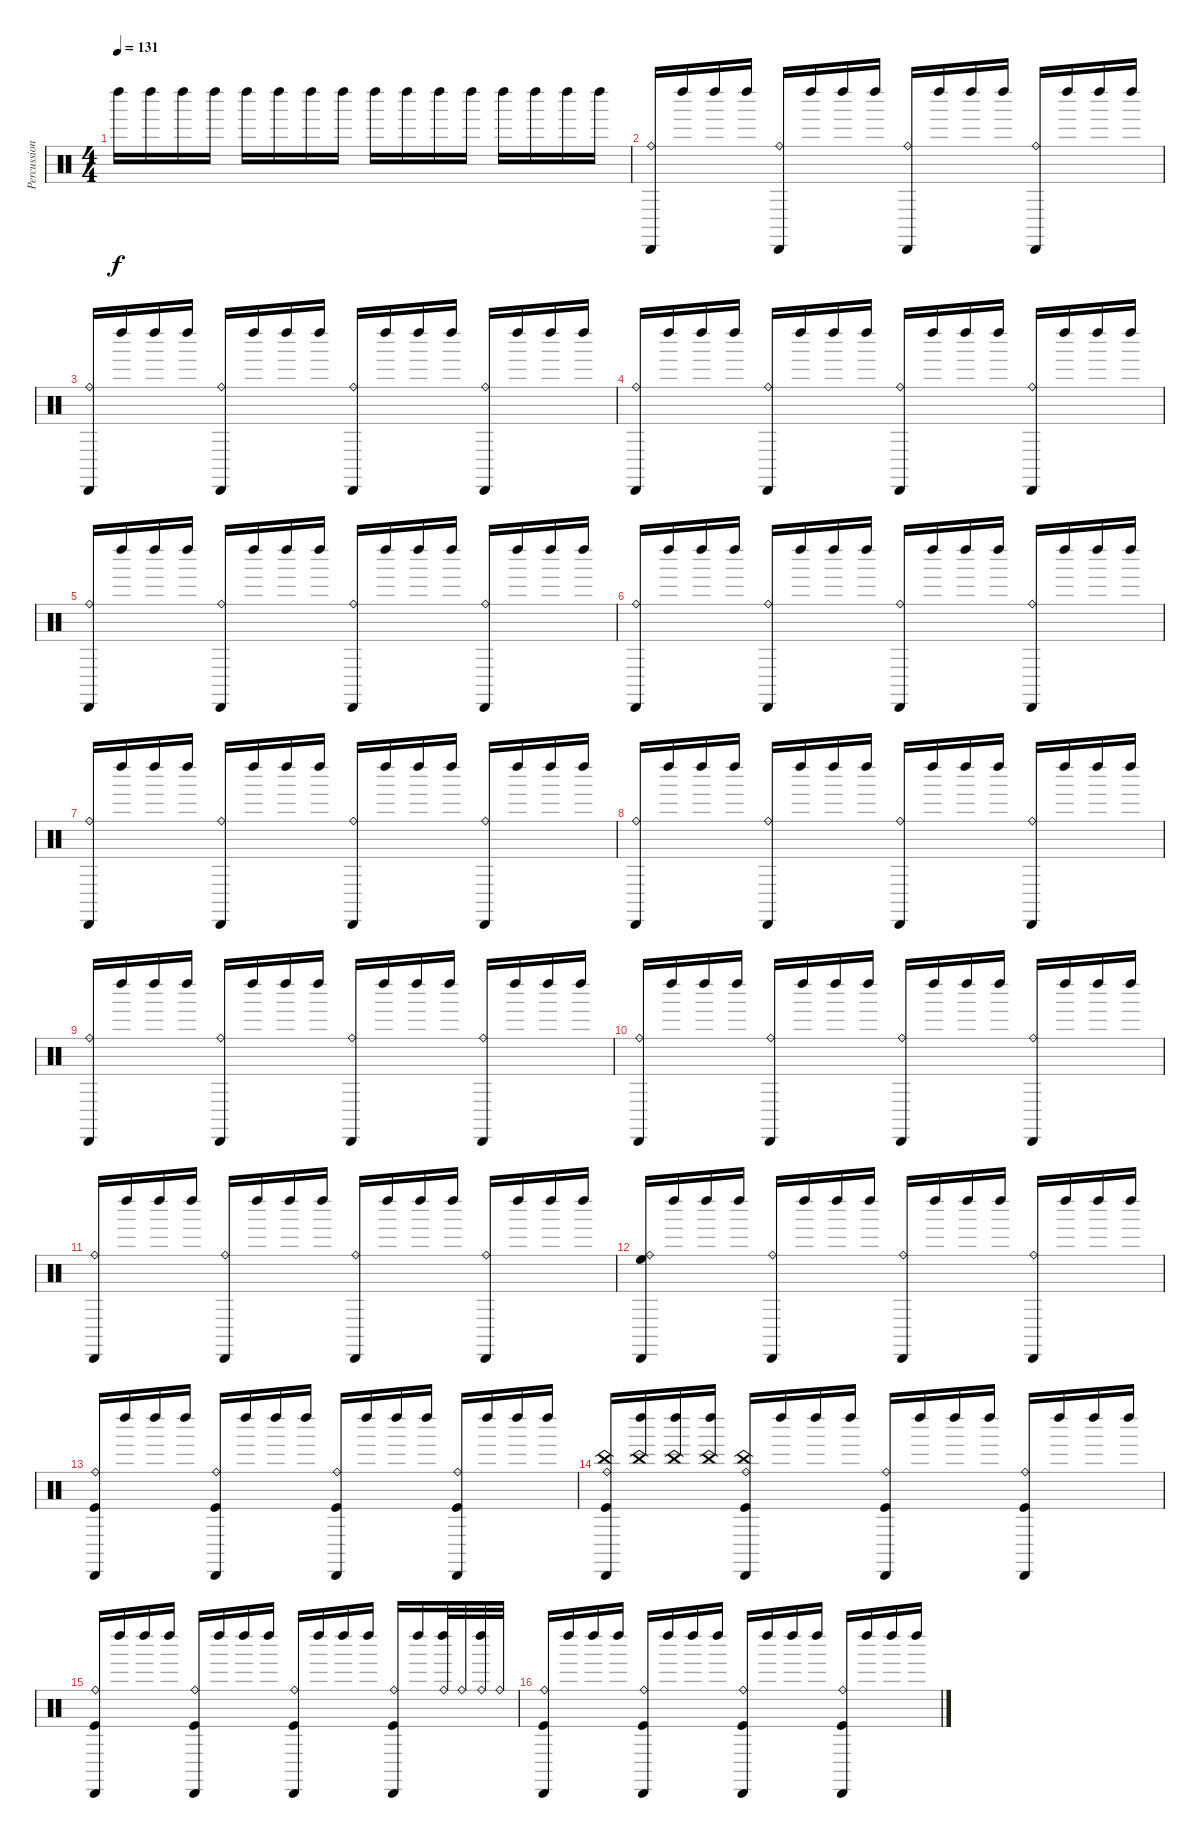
\track ("Percussion" "Percussion") {instrument percussion}
\staff {score}
\articulation defaults
\ts (4 4)
\tempo 131
\clef neutral
\ks c "Left Maraca (hit)".16{dy f} "Left Maraca (hit)".16 "Left Maraca (hit)".16 "Left Maraca (hit)".16 "Left Maraca (hit)".16 "Left Maraca (hit)".16 "Left Maraca (hit)".16 "Left Maraca (hit)".16 "Left Maraca (hit)".16 "Left Maraca (hit)".16 "Left Maraca (hit)".16 "Left Maraca (hit)".16 "Left Maraca (hit)".16 "Left Maraca (hit)".16 "Left Maraca (hit)".16 "Left Maraca (hit)".16
|
("Cabasa (hit)" "Ride (bell)").16 "Left Maraca (hit)".16 "Left Maraca (hit)".16 "Left Maraca (hit)".16 ("Cabasa (hit)" "Ride (bell)").16 "Left Maraca (hit)".16 "Left Maraca (hit)".16 "Left Maraca (hit)".16 ("Cabasa (hit)" "Ride (bell)").16 "Left Maraca (hit)".16 "Left Maraca (hit)".16 "Left Maraca (hit)".16 ("Cabasa (hit)" "Ride (bell)").16 "Left Maraca (hit)".16 "Left Maraca (hit)".16 "Left Maraca (hit)".16 |
("Cabasa (hit)" "Ride (bell)").16 "Left Maraca (hit)".16 "Left Maraca (hit)".16 "Left Maraca (hit)".16 ("Cabasa (hit)" "Ride (bell)").16 "Left Maraca (hit)".16 "Left Maraca (hit)".16 "Left Maraca (hit)".16 ("Cabasa (hit)" "Ride (bell)").16 "Left Maraca (hit)".16 "Left Maraca (hit)".16 "Left Maraca (hit)".16 ("Cabasa (hit)" "Ride (bell)").16 "Left Maraca (hit)".16 "Left Maraca (hit)".16 "Left Maraca (hit)".16 |
("Cabasa (hit)" "Ride (bell)").16 "Left Maraca (hit)".16 "Left Maraca (hit)".16 "Left Maraca (hit)".16 ("Cabasa (hit)" "Ride (bell)").16 "Left Maraca (hit)".16 "Left Maraca (hit)".16 "Left Maraca (hit)".16 ("Cabasa (hit)" "Ride (bell)").16 "Left Maraca (hit)".16 "Left Maraca (hit)".16 "Left Maraca (hit)".16 ("Cabasa (hit)" "Ride (bell)").16 "Left Maraca (hit)".16 "Left Maraca (hit)".16 "Left Maraca (hit)".16 |
("Cabasa (hit)" "Ride (bell)").16 "Left Maraca (hit)".16 "Left Maraca (hit)".16 "Left Maraca (hit)".16 ("Cabasa (hit)" "Ride (bell)").16 "Left Maraca (hit)".16 "Left Maraca (hit)".16 "Left Maraca (hit)".16 ("Cabasa (hit)" "Ride (bell)").16 "Left Maraca (hit)".16 "Left Maraca (hit)".16 "Left Maraca (hit)".16 ("Cabasa (hit)" "Ride (bell)").16 "Left Maraca (hit)".16 "Left Maraca (hit)".16 "Left Maraca (hit)".16 |
("Cabasa (hit)" "Ride (bell)").16 "Left Maraca (hit)".16 "Left Maraca (hit)".16 "Left Maraca (hit)".16 ("Cabasa (hit)" "Ride (bell)").16 "Left Maraca (hit)".16 "Left Maraca (hit)".16 "Left Maraca (hit)".16 ("Cabasa (hit)" "Ride (bell)").16 "Left Maraca (hit)".16 "Left Maraca (hit)".16 "Left Maraca (hit)".16 ("Cabasa (hit)" "Ride (bell)").16 "Left Maraca (hit)".16 "Left Maraca (hit)".16 "Left Maraca (hit)".16 |
("Cabasa (hit)" "Ride (bell)").16 "Left Maraca (hit)".16 "Left Maraca (hit)".16 "Left Maraca (hit)".16 ("Cabasa (hit)" "Ride (bell)").16 "Left Maraca (hit)".16 "Left Maraca (hit)".16 "Left Maraca (hit)".16 ("Cabasa (hit)" "Ride (bell)").16 "Left Maraca (hit)".16 "Left Maraca (hit)".16 "Left Maraca (hit)".16 ("Cabasa (hit)" "Ride (bell)").16 "Left Maraca (hit)".16 "Left Maraca (hit)".16 "Left Maraca (hit)".16 |
("Cabasa (hit)" "Ride (bell)").16 "Left Maraca (hit)".16 "Left Maraca (hit)".16 "Left Maraca (hit)".16 ("Cabasa (hit)" "Ride (bell)").16 "Left Maraca (hit)".16 "Left Maraca (hit)".16 "Left Maraca (hit)".16 ("Cabasa (hit)" "Ride (bell)").16 "Left Maraca (hit)".16 "Left Maraca (hit)".16 "Left Maraca (hit)".16 ("Cabasa (hit)" "Ride (bell)").16 "Left Maraca (hit)".16 "Left Maraca (hit)".16 "Left Maraca (hit)".16 |
("Cabasa (hit)" "Ride (bell)").16 "Left Maraca (hit)".16 "Left Maraca (hit)".16 "Left Maraca (hit)".16 ("Cabasa (hit)" "Ride (bell)").16 "Left Maraca (hit)".16 "Left Maraca (hit)".16 "Left Maraca (hit)".16 ("Cabasa (hit)" "Ride (bell)").16 "Left Maraca (hit)".16 "Left Maraca (hit)".16 "Left Maraca (hit)".16 ("Cabasa (hit)" "Ride (bell)").16 "Left Maraca (hit)".16 "Left Maraca (hit)".16 "Left Maraca (hit)".16 |
("Cabasa (hit)" "Ride (bell)").16 "Left Maraca (hit)".16 "Left Maraca (hit)".16 "Left Maraca (hit)".16 ("Cabasa (hit)" "Ride (bell)").16 "Left Maraca (hit)".16 "Left Maraca (hit)".16 "Left Maraca (hit)".16 ("Cabasa (hit)" "Ride (bell)").16 "Left Maraca (hit)".16 "Left Maraca (hit)".16 "Left Maraca (hit)".16 ("Cabasa (hit)" "Ride (bell)").16 "Left Maraca (hit)".16 "Left Maraca (hit)".16 "Left Maraca (hit)".16 |
("Cabasa (hit)" "Ride (bell)").16 "Left Maraca (hit)".16 "Left Maraca (hit)".16 "Left Maraca (hit)".16 ("Cabasa (hit)" "Ride (bell)").16 "Left Maraca (hit)".16 "Left Maraca (hit)".16 "Left Maraca (hit)".16 ("Cabasa (hit)" "Ride (bell)").16 "Left Maraca (hit)".16 "Left Maraca (hit)".16 "Left Maraca (hit)".16 ("Cabasa (hit)" "Ride (bell)").16 "Left Maraca (hit)".16 "Left Maraca (hit)".16 "Left Maraca (hit)".16 |
("Cabasa (hit)" "Ride (bell)" "High Floor Tom (hit)").16 "Left Maraca (hit)".16 "Left Maraca (hit)".16 "Left Maraca (hit)".16 ("Cabasa (hit)" "Ride (bell)").16 "Left Maraca (hit)".16 "Left Maraca (hit)".16 "Left Maraca (hit)".16 ("Cabasa (hit)" "Ride (bell)").16 "Left Maraca (hit)".16 "Left Maraca (hit)".16 "Left Maraca (hit)".16 ("Cabasa (hit)" "Ride (bell)").16 "Left Maraca (hit)".16 "Left Maraca (hit)".16 "Left Maraca (hit)".16 |
("Cabasa (hit)" "Ride (bell)" "Kick (hit)").16 "Left Maraca (hit)".16 "Left Maraca (hit)".16 "Left Maraca (hit)".16 ("Cabasa (hit)" "Ride (bell)" "Kick (hit)").16 "Left Maraca (hit)".16 "Left Maraca (hit)".16 "Left Maraca (hit)".16 ("Cabasa (hit)" "Ride (bell)" "Kick (hit)").16 "Left Maraca (hit)".16 "Left Maraca (hit)".16 "Left Maraca (hit)".16 ("Cabasa (hit)" "Ride (bell)" "Kick (hit)").16 "Left Maraca (hit)".16 "Left Maraca (hit)".16 "Left Maraca (hit)".16 |
("China (hit)" "Cabasa (hit)" "Ride (bell)" "Kick (hit)").16 ("China (hit)" "Left Maraca (hit)").16 ("China (hit)" "Left Maraca (hit)").16 ("China (hit)" "Left Maraca (hit)").16 ("China (hit)" "Cabasa (hit)" "Ride (bell)" "Kick (hit)").16 "Left Maraca (hit)".16 "Left Maraca (hit)".16 "Left Maraca (hit)".16 ("Cabasa (hit)" "Ride (bell)" "Kick (hit)").16 "Left Maraca (hit)".16 "Left Maraca (hit)".16 "Left Maraca (hit)".16 ("Cabasa (hit)" "Ride (bell)" "Kick (hit)").16 "Left Maraca (hit)".16 "Left Maraca (hit)".16 "Left Maraca (hit)".16 |
("Cabasa (hit)" "Ride (bell)" "Kick (hit)").16 "Left Maraca (hit)".16 "Left Maraca (hit)".16 "Left Maraca (hit)".16 ("Cabasa (hit)" "Ride (bell)" "Kick (hit)").16 "Left Maraca (hit)".16 "Left Maraca (hit)".16 "Left Maraca (hit)".16 ("Cabasa (hit)" "Ride (bell)" "Kick (hit)").16 "Left Maraca (hit)".16 "Left Maraca (hit)".16 "Left Maraca (hit)".16 ("Cabasa (hit)" "Ride (bell)" "Kick (hit)").16 "Left Maraca (hit)".16 ("Left Maraca (hit)" "Ride (bell)").32 "Ride (bell)".32 ("Left Maraca (hit)" "Ride (bell)").32 "Ride (bell)".32 |
("Cabasa (hit)" "Ride (bell)" "Kick (hit)").16 "Left Maraca (hit)".16 "Left Maraca (hit)".16 "Left Maraca (hit)".16 ("Cabasa (hit)" "Ride (bell)" "Kick (hit)").16 "Left Maraca (hit)".16 "Left Maraca (hit)".16 "Left Maraca (hit)".16 ("Cabasa (hit)" "Ride (bell)" "Kick (hit)").16 "Left Maraca (hit)".16 "Left Maraca (hit)".16 "Left Maraca (hit)".16 ("Cabasa (hit)" "Ride (bell)" "Kick (hit)").16 "Left Maraca (hit)".16 "Left Maraca (hit)".16 "Left Maraca (hit)".16
